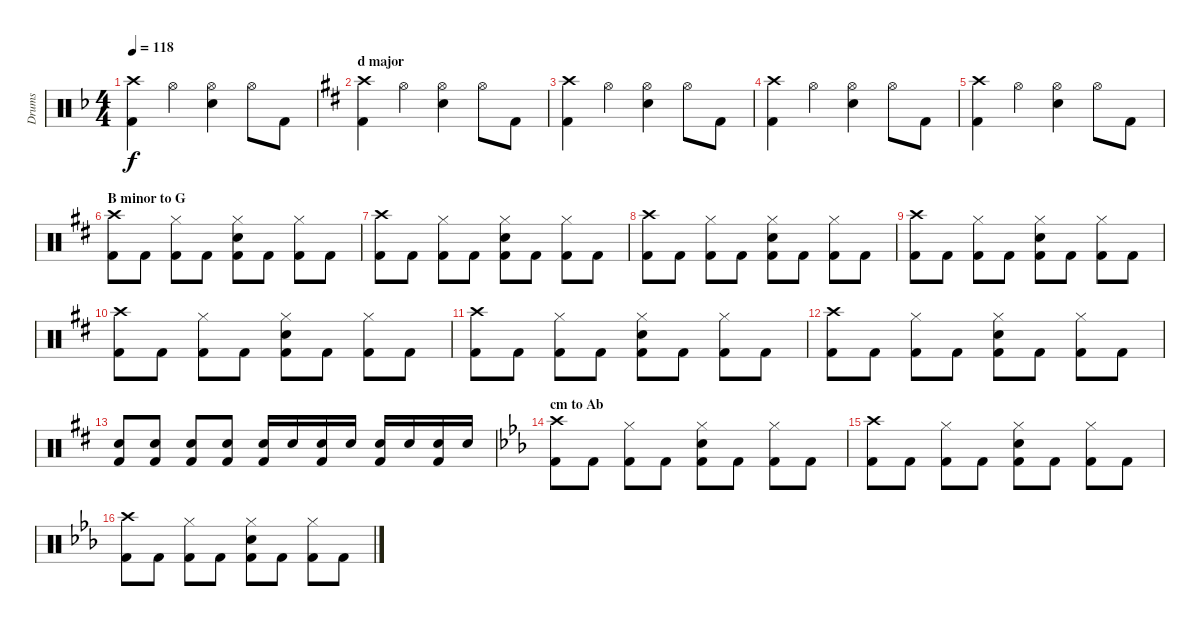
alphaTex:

\track ("Drums" "Drums") {instrument percussion}
\staff {score}
\articulation defaults
\ts (4 4)
\tempo 118
\clef neutral
\ks dminor
("Crash high (hit)" "Kick (hit) 2").4{dy f} "Hi-Hat (open)".4 ("Hi-Hat (open)" "Electric Snare (hit)").4 "Hi-Hat (open)".8 "Kick (hit) 2".8 |
\section ("" "d major")
\ks d
("Crash high (hit)" "Kick (hit) 2").4 "Hi-Hat (open)".4 ("Hi-Hat (open)" "Electric Snare (hit)").4 "Hi-Hat (open)".8 "Kick (hit) 2".8 |
("Crash high (hit)" "Kick (hit) 2").4 "Hi-Hat (open)".4 ("Hi-Hat (open)" "Electric Snare (hit)").4 "Hi-Hat (open)".8 "Kick (hit) 2".8 |
("Crash high (hit)" "Kick (hit) 2").4 "Hi-Hat (open)".4 ("Hi-Hat (open)" "Electric Snare (hit)").4 "Hi-Hat (open)".8 "Kick (hit) 2".8 |
("Crash high (hit)" "Kick (hit) 2").4 "Hi-Hat (open)".4 ("Hi-Hat (open)" "Electric Snare (hit)").4 "Hi-Hat (open)".8 "Kick (hit) 2".8 |
\section ("" "B minor to G")
\ks bminor
("Crash high (hit)" "Kick (hit) 2").8 "Kick (hit) 2".8 ("Hi-Hat (closed)" "Kick (hit) 2").8 "Kick (hit) 2".8 ("Hi-Hat (closed)" "Electric Snare (hit)" "Kick (hit) 2").8 "Kick (hit) 2".8 ("Hi-Hat (closed)" "Kick (hit) 2").8 "Kick (hit) 2".8 |
("Crash high (hit)" "Kick (hit) 2").8 "Kick (hit) 2".8 ("Hi-Hat (closed)" "Kick (hit) 2").8 "Kick (hit) 2".8 ("Hi-Hat (closed)" "Electric Snare (hit)" "Kick (hit) 2").8 "Kick (hit) 2".8 ("Hi-Hat (closed)" "Kick (hit) 2").8 "Kick (hit) 2".8 |
("Crash high (hit)" "Kick (hit) 2").8 "Kick (hit) 2".8 ("Hi-Hat (closed)" "Kick (hit) 2").8 "Kick (hit) 2".8 ("Hi-Hat (closed)" "Electric Snare (hit)" "Kick (hit) 2").8 "Kick (hit) 2".8 ("Hi-Hat (closed)" "Kick (hit) 2").8 "Kick (hit) 2".8 |
("Crash high (hit)" "Kick (hit) 2").8 "Kick (hit) 2".8 ("Hi-Hat (closed)" "Kick (hit) 2").8 "Kick (hit) 2".8 ("Hi-Hat (closed)" "Electric Snare (hit)" "Kick (hit) 2").8 "Kick (hit) 2".8 ("Hi-Hat (closed)" "Kick (hit) 2").8 "Kick (hit) 2".8 |
("Crash high (hit)" "Kick (hit) 2").8 "Kick (hit) 2".8 ("Hi-Hat (closed)" "Kick (hit) 2").8 "Kick (hit) 2".8 ("Hi-Hat (closed)" "Electric Snare (hit)" "Kick (hit) 2").8 "Kick (hit) 2".8 ("Hi-Hat (closed)" "Kick (hit) 2").8 "Kick (hit) 2".8 |
("Crash high (hit)" "Kick (hit) 2").8 "Kick (hit) 2".8 ("Hi-Hat (closed)" "Kick (hit) 2").8 "Kick (hit) 2".8 ("Hi-Hat (closed)" "Electric Snare (hit)" "Kick (hit) 2").8 "Kick (hit) 2".8 ("Hi-Hat (closed)" "Kick (hit) 2").8 "Kick (hit) 2".8 |
("Crash high (hit)" "Kick (hit) 2").8 "Kick (hit) 2".8 ("Hi-Hat (closed)" "Kick (hit) 2").8 "Kick (hit) 2".8 ("Hi-Hat (closed)" "Electric Snare (hit)" "Kick (hit) 2").8 "Kick (hit) 2".8 ("Hi-Hat (closed)" "Kick (hit) 2").8 "Kick (hit) 2".8 |
("Electric Snare (hit)" "Kick (hit) 2").8 ("Electric Snare (hit)" "Kick (hit) 2").8 ("Electric Snare (hit)" "Kick (hit) 2").8 ("Electric Snare (hit)" "Kick (hit) 2").8 ("Electric Snare (hit)" "Kick (hit) 2").16 "Electric Snare (hit)".16 ("Electric Snare (hit)" "Kick (hit) 2").16 "Electric Snare (hit)".16 ("Electric Snare (hit)" "Kick (hit) 2").16 "Electric Snare (hit)".16 ("Electric Snare (hit)" "Kick (hit) 2").16 "Electric Snare (hit)".16 |
\section ("" "cm to Ab")
\ks cminor
("Crash high (hit)" "Kick (hit) 2").8 "Kick (hit) 2".8 ("Hi-Hat (closed)" "Kick (hit) 2").8 "Kick (hit) 2".8 ("Hi-Hat (closed)" "Electric Snare (hit)" "Kick (hit) 2").8 "Kick (hit) 2".8 ("Hi-Hat (closed)" "Kick (hit) 2").8 "Kick (hit) 2".8 |
("Crash high (hit)" "Kick (hit) 2").8 "Kick (hit) 2".8 ("Hi-Hat (closed)" "Kick (hit) 2").8 "Kick (hit) 2".8 ("Hi-Hat (closed)" "Electric Snare (hit)" "Kick (hit) 2").8 "Kick (hit) 2".8 ("Hi-Hat (closed)" "Kick (hit) 2").8 "Kick (hit) 2".8 |
("Crash high (hit)" "Kick (hit) 2").8 "Kick (hit) 2".8 ("Hi-Hat (closed)" "Kick (hit) 2").8 "Kick (hit) 2".8 ("Hi-Hat (closed)" "Electric Snare (hit)" "Kick (hit) 2").8 "Kick (hit) 2".8 ("Hi-Hat (closed)" "Kick (hit) 2").8 "Kick (hit) 2".8
